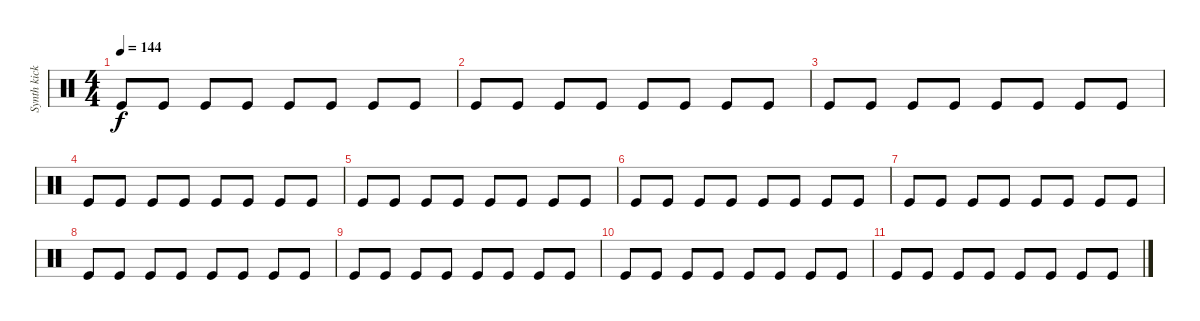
\track ("Synth kick loop" "Synth kick") {instrument percussion}
\staff {score}
\articulation defaults
\ts (4 4)
\tempo 144
\clef neutral
\ks c "Kick (hit)".8{dy f} "Kick (hit)".8 "Kick (hit)".8 "Kick (hit)".8 "Kick (hit)".8 "Kick (hit)".8 "Kick (hit)".8 "Kick (hit)".8
|
"Kick (hit)".8 "Kick (hit)".8 "Kick (hit)".8 "Kick (hit)".8 "Kick (hit)".8 "Kick (hit)".8 "Kick (hit)".8 "Kick (hit)".8 |
"Kick (hit)".8 "Kick (hit)".8 "Kick (hit)".8 "Kick (hit)".8 "Kick (hit)".8 "Kick (hit)".8 "Kick (hit)".8 "Kick (hit)".8 |
"Kick (hit)".8 "Kick (hit)".8 "Kick (hit)".8 "Kick (hit)".8 "Kick (hit)".8 "Kick (hit)".8 "Kick (hit)".8 "Kick (hit)".8 |
"Kick (hit)".8 "Kick (hit)".8 "Kick (hit)".8 "Kick (hit)".8 "Kick (hit)".8 "Kick (hit)".8 "Kick (hit)".8 "Kick (hit)".8 |
"Kick (hit)".8 "Kick (hit)".8 "Kick (hit)".8 "Kick (hit)".8 "Kick (hit)".8 "Kick (hit)".8 "Kick (hit)".8 "Kick (hit)".8 |
"Kick (hit)".8 "Kick (hit)".8 "Kick (hit)".8 "Kick (hit)".8 "Kick (hit)".8 "Kick (hit)".8 "Kick (hit)".8 "Kick (hit)".8 |
"Kick (hit)".8 "Kick (hit)".8 "Kick (hit)".8 "Kick (hit)".8 "Kick (hit)".8 "Kick (hit)".8 "Kick (hit)".8 "Kick (hit)".8 |
"Kick (hit)".8 "Kick (hit)".8 "Kick (hit)".8 "Kick (hit)".8 "Kick (hit)".8 "Kick (hit)".8 "Kick (hit)".8 "Kick (hit)".8 |
"Kick (hit)".8 "Kick (hit)".8 "Kick (hit)".8 "Kick (hit)".8 "Kick (hit)".8 "Kick (hit)".8 "Kick (hit)".8 "Kick (hit)".8 |
"Kick (hit)".8 "Kick (hit)".8 "Kick (hit)".8 "Kick (hit)".8 "Kick (hit)".8 "Kick (hit)".8 "Kick (hit)".8 "Kick (hit)".8
